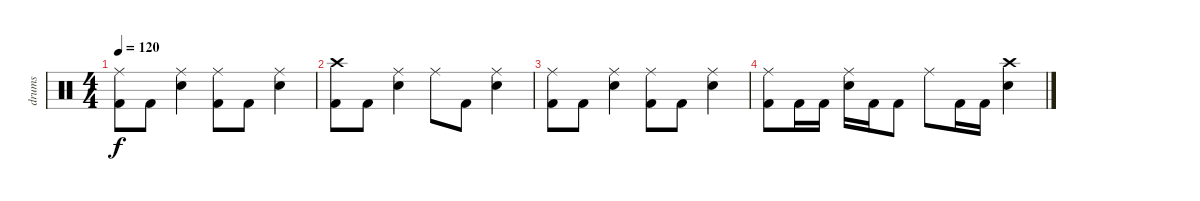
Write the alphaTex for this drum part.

\track ("drums" "drums") {instrument percussion}
\staff {score}
\articulation defaults
\ts (4 4)
\tempo 120
\clef neutral
\ks c
("Ride (middle)" "Kick (hit) 2").8{dy f volume 13} "Kick (hit) 2".8 ("Ride (middle)" "Electric Snare (hit)").4 ("Ride (middle)" "Kick (hit) 2").8 "Kick (hit) 2".8 ("Ride (middle)" "Electric Snare (hit)").4 |
("Crash high (hit)" "Kick (hit) 2").8{volume 10} "Kick (hit) 2".8 ("Ride (middle)" "Electric Snare (hit)").4 "Ride (middle)".8 "Kick (hit) 2".8 ("Ride (middle)" "Electric Snare (hit)").4 |
("Ride (middle)" "Kick (hit) 2").8{volume 5} "Kick (hit) 2".8 ("Ride (middle)" "Electric Snare (hit)").4 ("Ride (middle)" "Kick (hit) 2").8 "Kick (hit) 2".8 ("Ride (middle)" "Electric Snare (hit)").4 |
("Ride (middle)" "Kick (hit) 2").8{volume 0} "Kick (hit) 2".16 "Kick (hit) 2".16 ("Ride (middle)" "Electric Snare (hit)").16 "Kick (hit) 2".16 "Kick (hit) 2".8 "Ride (middle)".8 "Kick (hit) 2".16 "Kick (hit) 2".16 ("Crash high (hit)" "Electric Snare (hit)").4
